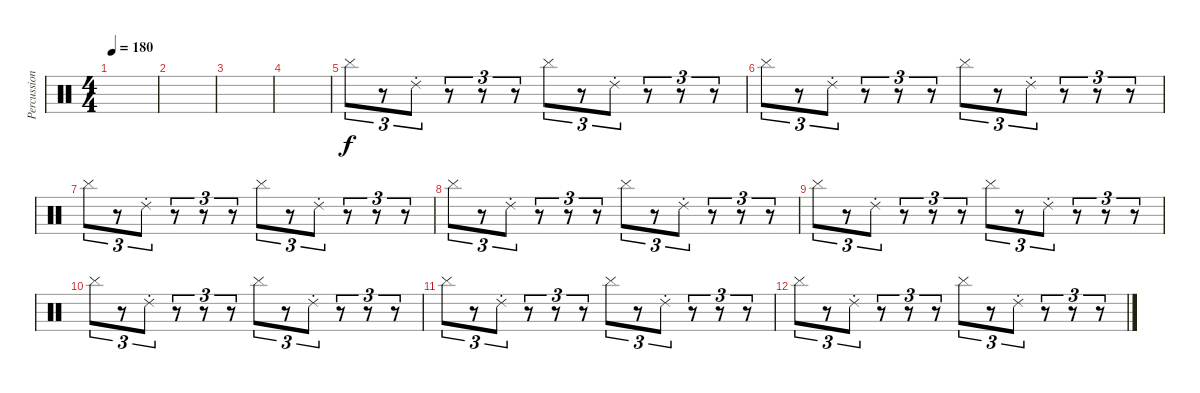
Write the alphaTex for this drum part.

\track ("Percussions" "Percussion") {instrument percussion}
\staff {score}
\articulation defaults
\ts (4 4)
\tempo 180
\clef neutral
\ks c
|
|
|
|
"Cymbal (hit)".8{tu (3 2)} r.8{tu (3 2)} "Ride (choke) 2".8{tu (3 2)} r.8{tu (3 2)} r.8{tu (3 2)} r.8{tu (3 2)} "Cymbal (hit)".8{tu (3 2)} r.8{tu (3 2)} "Ride (choke) 2".8{tu (3 2)} r.8{tu (3 2)} r.8{tu (3 2)} r.8{tu (3 2)} |
"Cymbal (hit)".8{tu (3 2)} r.8{tu (3 2)} "Ride (choke) 2".8{tu (3 2)} r.8{tu (3 2)} r.8{tu (3 2)} r.8{tu (3 2)} "Cymbal (hit)".8{tu (3 2)} r.8{tu (3 2)} "Ride (choke) 2".8{tu (3 2)} r.8{tu (3 2)} r.8{tu (3 2)} r.8{tu (3 2)} |
"Cymbal (hit)".8{tu (3 2)} r.8{tu (3 2)} "Ride (choke) 2".8{tu (3 2)} r.8{tu (3 2)} r.8{tu (3 2)} r.8{tu (3 2)} "Cymbal (hit)".8{tu (3 2)} r.8{tu (3 2)} "Ride (choke) 2".8{tu (3 2)} r.8{tu (3 2)} r.8{tu (3 2)} r.8{tu (3 2)} |
"Cymbal (hit)".8{tu (3 2)} r.8{tu (3 2)} "Ride (choke) 2".8{tu (3 2)} r.8{tu (3 2)} r.8{tu (3 2)} r.8{tu (3 2)} "Cymbal (hit)".8{tu (3 2)} r.8{tu (3 2)} "Ride (choke) 2".8{tu (3 2)} r.8{tu (3 2)} r.8{tu (3 2)} r.8{tu (3 2)} |
"Cymbal (hit)".8{tu (3 2)} r.8{tu (3 2)} "Ride (choke) 2".8{tu (3 2)} r.8{tu (3 2)} r.8{tu (3 2)} r.8{tu (3 2)} "Cymbal (hit)".8{tu (3 2)} r.8{tu (3 2)} "Ride (choke) 2".8{tu (3 2)} r.8{tu (3 2)} r.8{tu (3 2)} r.8{tu (3 2)} |
"Cymbal (hit)".8{tu (3 2)} r.8{tu (3 2)} "Ride (choke) 2".8{tu (3 2)} r.8{tu (3 2)} r.8{tu (3 2)} r.8{tu (3 2)} "Cymbal (hit)".8{tu (3 2)} r.8{tu (3 2)} "Ride (choke) 2".8{tu (3 2)} r.8{tu (3 2)} r.8{tu (3 2)} r.8{tu (3 2)} |
"Cymbal (hit)".8{tu (3 2)} r.8{tu (3 2)} "Ride (choke) 2".8{tu (3 2)} r.8{tu (3 2)} r.8{tu (3 2)} r.8{tu (3 2)} "Cymbal (hit)".8{tu (3 2)} r.8{tu (3 2)} "Ride (choke) 2".8{tu (3 2)} r.8{tu (3 2)} r.8{tu (3 2)} r.8{tu (3 2)} |
"Cymbal (hit)".8{tu (3 2)} r.8{tu (3 2)} "Ride (choke) 2".8{tu (3 2)} r.8{tu (3 2)} r.8{tu (3 2)} r.8{tu (3 2)} "Cymbal (hit)".8{tu (3 2)} r.8{tu (3 2)} "Ride (choke) 2".8{tu (3 2)} r.8{tu (3 2)} r.8{tu (3 2)} r.8{tu (3 2)}
